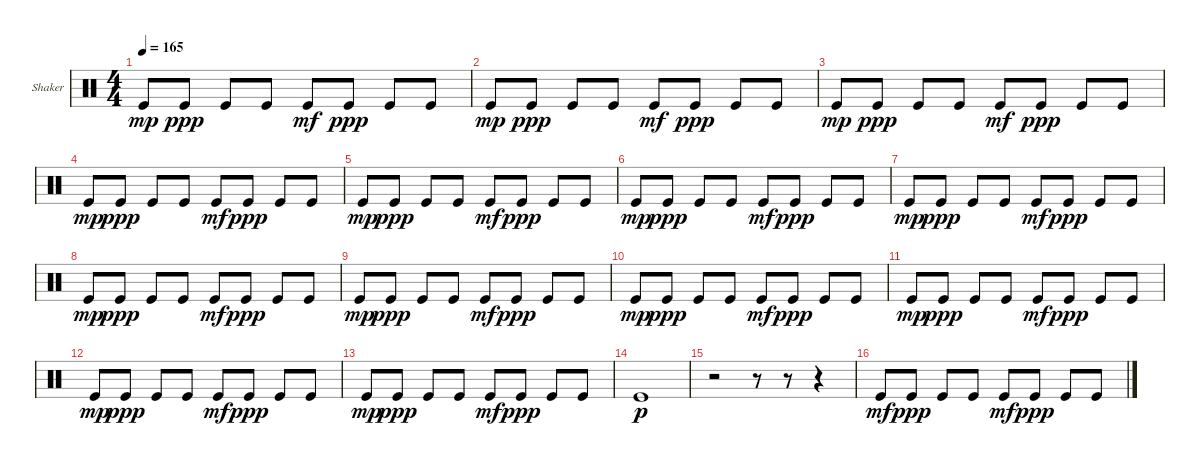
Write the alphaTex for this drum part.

\defaultSystemsLayout 4
\bracketExtendMode groupsimilarinstruments
\firstSystemTrackNameOrientation horizontal
\otherSystemsTrackNameOrientation horizontal
\track ("Shaker" "Shaker") {instrument percussion}
\staff {score}
\articulation defaults
\ts (4 4)
\tempo 165
\clef neutral
\ks c "Kick (hit)".8{dy mp} "Kick (hit)".8{dy ppp} "Kick (hit)".8 "Kick (hit)".8 "Kick (hit)".8{dy mf} "Kick (hit)".8{dy ppp} "Kick (hit)".8 "Kick (hit)".8
|
"Kick (hit)".8{dy mp} "Kick (hit)".8{dy ppp} "Kick (hit)".8 "Kick (hit)".8 "Kick (hit)".8{dy mf} "Kick (hit)".8{dy ppp} "Kick (hit)".8 "Kick (hit)".8 |
"Kick (hit)".8{dy mp} "Kick (hit)".8{dy ppp} "Kick (hit)".8 "Kick (hit)".8 "Kick (hit)".8{dy mf} "Kick (hit)".8{dy ppp} "Kick (hit)".8 "Kick (hit)".8 |
"Kick (hit)".8{dy mp} "Kick (hit)".8{dy ppp} "Kick (hit)".8 "Kick (hit)".8 "Kick (hit)".8{dy mf} "Kick (hit)".8{dy ppp} "Kick (hit)".8 "Kick (hit)".8 |
"Kick (hit)".8{dy mp} "Kick (hit)".8{dy ppp} "Kick (hit)".8 "Kick (hit)".8 "Kick (hit)".8{dy mf} "Kick (hit)".8{dy ppp} "Kick (hit)".8 "Kick (hit)".8 |
"Kick (hit)".8{dy mp} "Kick (hit)".8{dy ppp} "Kick (hit)".8 "Kick (hit)".8 "Kick (hit)".8{dy mf} "Kick (hit)".8{dy ppp} "Kick (hit)".8 "Kick (hit)".8 |
"Kick (hit)".8{dy mp} "Kick (hit)".8{dy ppp} "Kick (hit)".8 "Kick (hit)".8 "Kick (hit)".8{dy mf} "Kick (hit)".8{dy ppp} "Kick (hit)".8 "Kick (hit)".8 |
"Kick (hit)".8{dy mp} "Kick (hit)".8{dy ppp} "Kick (hit)".8 "Kick (hit)".8 "Kick (hit)".8{dy mf} "Kick (hit)".8{dy ppp} "Kick (hit)".8 "Kick (hit)".8 |
"Kick (hit)".8{dy mp} "Kick (hit)".8{dy ppp} "Kick (hit)".8 "Kick (hit)".8 "Kick (hit)".8{dy mf} "Kick (hit)".8{dy ppp} "Kick (hit)".8 "Kick (hit)".8 |
"Kick (hit)".8{dy mp} "Kick (hit)".8{dy ppp} "Kick (hit)".8 "Kick (hit)".8 "Kick (hit)".8{dy mf} "Kick (hit)".8{dy ppp} "Kick (hit)".8 "Kick (hit)".8 |
"Kick (hit)".8{dy mp} "Kick (hit)".8{dy ppp} "Kick (hit)".8 "Kick (hit)".8 "Kick (hit)".8{dy mf} "Kick (hit)".8{dy ppp} "Kick (hit)".8 "Kick (hit)".8 |
"Kick (hit)".8{dy mp} "Kick (hit)".8{dy ppp} "Kick (hit)".8 "Kick (hit)".8 "Kick (hit)".8{dy mf} "Kick (hit)".8{dy ppp} "Kick (hit)".8 "Kick (hit)".8 |
"Kick (hit)".8{dy mp} "Kick (hit)".8{dy ppp} "Kick (hit)".8 "Kick (hit)".8 "Kick (hit)".8{dy mf} "Kick (hit)".8{dy ppp} "Kick (hit)".8 "Kick (hit)".8 |
"Kick (hit)".1{dy p} |
r.2 r.8 r.8 r.4 |
"Kick (hit)".8{dy mf} "Kick (hit)".8{dy ppp} "Kick (hit)".8 "Kick (hit)".8 "Kick (hit)".8{dy mf} "Kick (hit)".8{dy ppp} "Kick (hit)".8 "Kick (hit)".8
